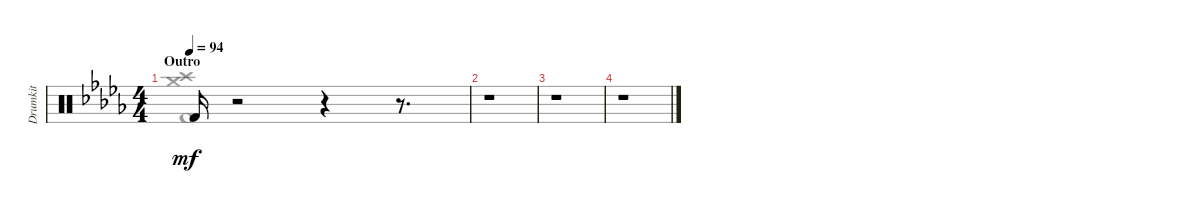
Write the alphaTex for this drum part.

\track ("Drumkit" "Drumkit") {instrument percussion}
\staff {score}
\articulation defaults
\voice
\ts (4 4)
\section ("" "Outro")
\tempo 94
\clef neutral
\ks bbminor "Kick (hit) 2".16{dy mf}
r.2 r.4 r.8{d} |
r.1 |
r.1 |
r.1
\voice
\clef neutral
\ottava regular
\simile none
\ks bbminor
("Crash medium (hit)" "Crash high (hit)" "Kick (hit) 2").1{dy mf} |
|
|
